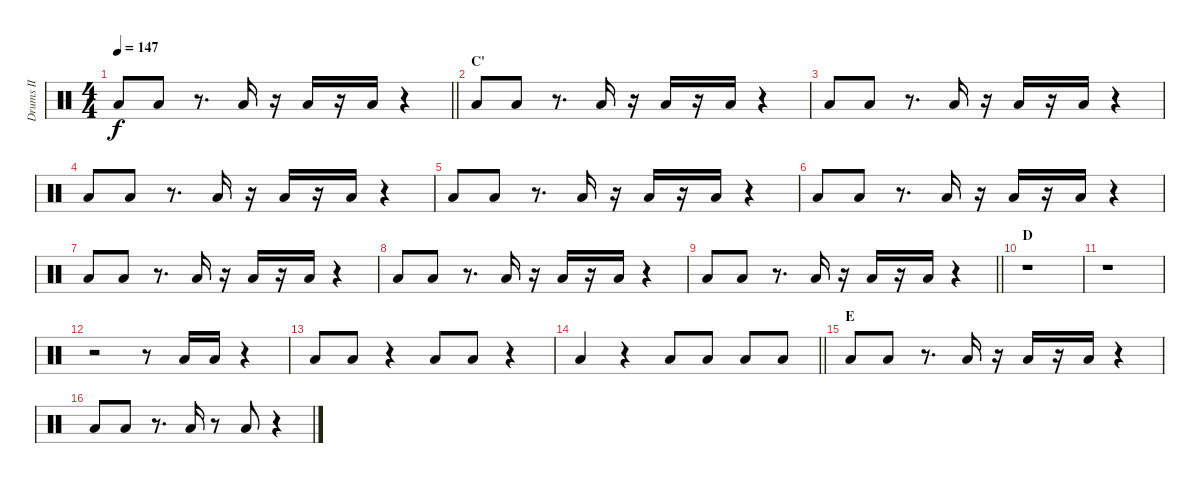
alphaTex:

\track ("Drums II" "Drums II") {instrument percussion}
\staff {score}
\articulation defaults
\ts (4 4)
\tempo 147
\clef neutral
\barLineRight lightlight
\ks c "Low Tom (hit)".8{dy f} "Low Tom (hit)".8
r.8{d} "Low Tom (hit)".16 r.16 "Low Tom (hit)".16 r.16 "Low Tom (hit)".16 r.4 |
\section ("" "C'")
"Low Tom (hit)".8 "Low Tom (hit)".8 r.8{d} "Low Tom (hit)".16 r.16 "Low Tom (hit)".16 r.16 "Low Tom (hit)".16 r.4 |
"Low Tom (hit)".8 "Low Tom (hit)".8 r.8{d} "Low Tom (hit)".16 r.16 "Low Tom (hit)".16 r.16 "Low Tom (hit)".16 r.4 |
"Low Tom (hit)".8 "Low Tom (hit)".8 r.8{d} "Low Tom (hit)".16 r.16 "Low Tom (hit)".16 r.16 "Low Tom (hit)".16 r.4 |
"Low Tom (hit)".8 "Low Tom (hit)".8 r.8{d} "Low Tom (hit)".16 r.16 "Low Tom (hit)".16 r.16 "Low Tom (hit)".16 r.4 |
"Low Tom (hit)".8 "Low Tom (hit)".8 r.8{d} "Low Tom (hit)".16 r.16 "Low Tom (hit)".16 r.16 "Low Tom (hit)".16 r.4 |
"Low Tom (hit)".8 "Low Tom (hit)".8 r.8{d} "Low Tom (hit)".16 r.16 "Low Tom (hit)".16 r.16 "Low Tom (hit)".16 r.4 |
"Low Tom (hit)".8 "Low Tom (hit)".8 r.8{d} "Low Tom (hit)".16 r.16 "Low Tom (hit)".16 r.16 "Low Tom (hit)".16 r.4 |
\barLineRight lightlight "Low Tom (hit)".8 "Low Tom (hit)".8
r.8{d} "Low Tom (hit)".16 r.16 "Low Tom (hit)".16 r.16 "Low Tom (hit)".16 r.4 |
\section ("" "D")
r.1 |
r.1 |
r.2 r.8 "Low Tom (hit)".16 "Low Tom (hit)".16 r.4 |
"Low Tom (hit)".8 "Low Tom (hit)".8 r.4 "Low Tom (hit)".8 "Low Tom (hit)".8 r.4 |
\barLineRight lightlight "Low Tom (hit)".4
r.4 "Low Tom (hit)".8 "Low Tom (hit)".8 "Low Tom (hit)".8 "Low Tom (hit)".8 |
\section ("" "E")
"Low Tom (hit)".8 "Low Tom (hit)".8 r.8{d} "Low Tom (hit)".16 r.16 "Low Tom (hit)".16 r.16 "Low Tom (hit)".16 r.4 |
"Low Tom (hit)".8 "Low Tom (hit)".8 r.8{d} "Low Tom (hit)".16 r.8 "Low Tom (hit)".8 r.4
